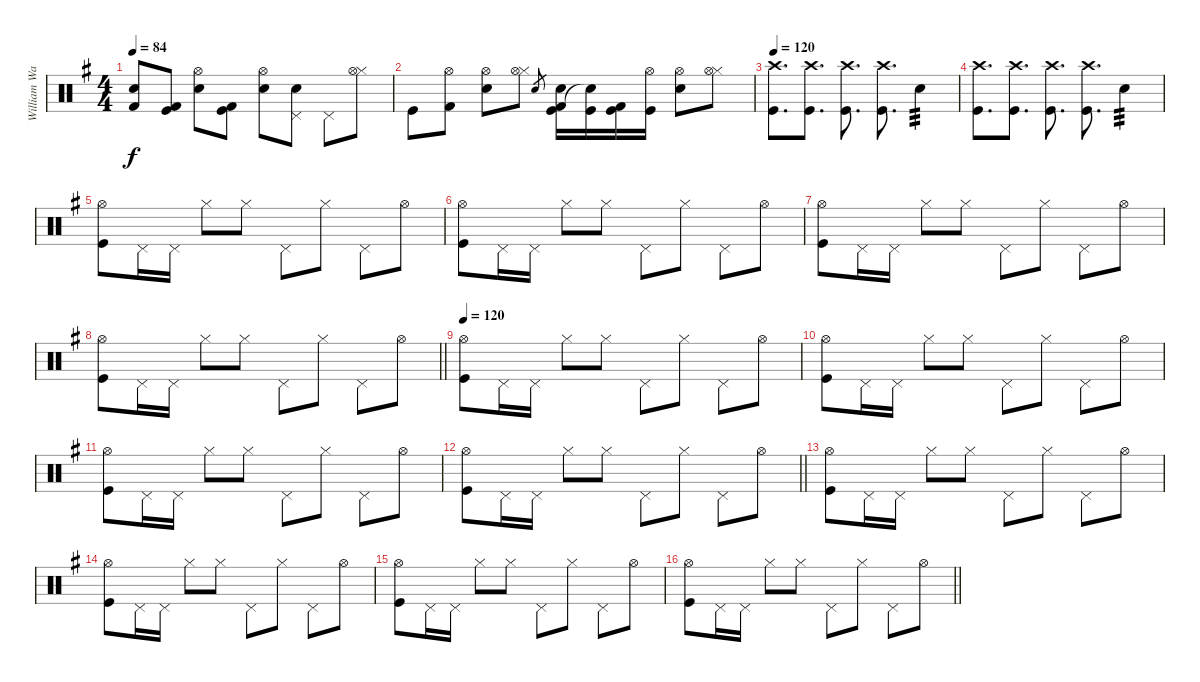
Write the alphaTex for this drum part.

\track ("William Ward" "William Wa") {instrument percussion}
\staff {score}
\articulation defaults
\ts (4 4)
\tempo 84
\clef neutral
\ks g
("Kick (hit) 2" "Electric Snare (hit)").8{dy f} ("Kick (hit) 2" "Kick (hit)").8 ("Hi-Hat (open)" "Electric Snare (hit)").8 ("Kick (hit) 2" "Kick (hit)").8 ("Hi-Hat (open)" "Electric Snare (hit)").8 ("Pedal Hi-Hat (hit)" "Snare (hit) 2").8 "Pedal Hi-Hat (hit)".8 ("Hi-Hat (closed)" "Hi-Hat (open)").8 |
"Kick (hit)".8 ("Kick (hit) 2" "Hi-Hat (open)").8 ("Hi-Hat (open)" "Electric Snare (hit)").8 ("Hi-Hat (closed)" "Hi-Hat (open)").8 "Electric Snare (hit)".8{gr} ("Kick (hit) 2" "Kick (hit)" "Electric Snare (hit)").16 ("Kick (hit)" "Electric Snare (hit)"{t}).16 ("Kick (hit) 2" "Kick (hit)").16 ("Hi-Hat (open)" "Kick (hit)").16 ("Hi-Hat (open)" "Electric Snare (hit)").8 ("Hi-Hat (closed)" "Hi-Hat (open)").8 |
\tempo 120
("Kick (hit)" "Crash high (hit)").8{d} ("Kick (hit)" "Crash high (hit)").8{d} ("Kick (hit)" "Crash high (hit)").8{d} ("Kick (hit)" "Crash high (hit)").8{d} "Electric Snare (hit)".4{tp 3} |
("Kick (hit)" "Crash high (hit)").8{d} ("Kick (hit)" "Crash high (hit)").8{d} ("Kick (hit)" "Crash high (hit)").8{d} ("Kick (hit)" "Crash high (hit)").8{d} "Electric Snare (hit)".4{tp 3} |
("Hi-Hat (open)" "Kick (hit)").8 "Pedal Hi-Hat (hit)".16 "Pedal Hi-Hat (hit)".16 "Hi-Hat (closed)".8 "Hi-Hat (closed)".8 "Pedal Hi-Hat (hit)".8 "Hi-Hat (closed)".8 "Pedal Hi-Hat (hit)".8 "Hi-Hat (open)".8 |
("Hi-Hat (open)" "Kick (hit)").8 "Pedal Hi-Hat (hit)".16 "Pedal Hi-Hat (hit)".16 "Hi-Hat (closed)".8 "Hi-Hat (closed)".8 "Pedal Hi-Hat (hit)".8 "Hi-Hat (closed)".8 "Pedal Hi-Hat (hit)".8 "Hi-Hat (open)".8 |
("Hi-Hat (open)" "Kick (hit)").8 "Pedal Hi-Hat (hit)".16 "Pedal Hi-Hat (hit)".16 "Hi-Hat (closed)".8 "Hi-Hat (closed)".8 "Pedal Hi-Hat (hit)".8 "Hi-Hat (closed)".8 "Pedal Hi-Hat (hit)".8 "Hi-Hat (open)".8 |
\barLineRight lightlight
("Hi-Hat (open)" "Kick (hit)").8 "Pedal Hi-Hat (hit)".16 "Pedal Hi-Hat (hit)".16 "Hi-Hat (closed)".8 "Hi-Hat (closed)".8 "Pedal Hi-Hat (hit)".8 "Hi-Hat (closed)".8 "Pedal Hi-Hat (hit)".8 "Hi-Hat (open)".8 |
\tempo 120
("Hi-Hat (open)" "Kick (hit)").8 "Pedal Hi-Hat (hit)".16 "Pedal Hi-Hat (hit)".16 "Hi-Hat (closed)".8 "Hi-Hat (closed)".8 "Pedal Hi-Hat (hit)".8 "Hi-Hat (closed)".8 "Pedal Hi-Hat (hit)".8 "Hi-Hat (open)".8 |
("Hi-Hat (open)" "Kick (hit)").8 "Pedal Hi-Hat (hit)".16 "Pedal Hi-Hat (hit)".16 "Hi-Hat (closed)".8 "Hi-Hat (closed)".8 "Pedal Hi-Hat (hit)".8 "Hi-Hat (closed)".8 "Pedal Hi-Hat (hit)".8 "Hi-Hat (open)".8 |
("Hi-Hat (open)" "Kick (hit)").8 "Pedal Hi-Hat (hit)".16 "Pedal Hi-Hat (hit)".16 "Hi-Hat (closed)".8 "Hi-Hat (closed)".8 "Pedal Hi-Hat (hit)".8 "Hi-Hat (closed)".8 "Pedal Hi-Hat (hit)".8 "Hi-Hat (open)".8 |
\barLineRight lightlight
("Hi-Hat (open)" "Kick (hit)").8 "Pedal Hi-Hat (hit)".16 "Pedal Hi-Hat (hit)".16 "Hi-Hat (closed)".8 "Hi-Hat (closed)".8 "Pedal Hi-Hat (hit)".8 "Hi-Hat (closed)".8 "Pedal Hi-Hat (hit)".8 "Hi-Hat (open)".8 |
("Hi-Hat (open)" "Kick (hit)").8 "Pedal Hi-Hat (hit)".16 "Pedal Hi-Hat (hit)".16 "Hi-Hat (closed)".8 "Hi-Hat (closed)".8 "Pedal Hi-Hat (hit)".8 "Hi-Hat (closed)".8 "Pedal Hi-Hat (hit)".8 "Hi-Hat (open)".8 |
("Hi-Hat (open)" "Kick (hit)").8 "Pedal Hi-Hat (hit)".16 "Pedal Hi-Hat (hit)".16 "Hi-Hat (closed)".8 "Hi-Hat (closed)".8 "Pedal Hi-Hat (hit)".8 "Hi-Hat (closed)".8 "Pedal Hi-Hat (hit)".8 "Hi-Hat (open)".8 |
("Hi-Hat (open)" "Kick (hit)").8 "Pedal Hi-Hat (hit)".16 "Pedal Hi-Hat (hit)".16 "Hi-Hat (closed)".8 "Hi-Hat (closed)".8 "Pedal Hi-Hat (hit)".8 "Hi-Hat (closed)".8 "Pedal Hi-Hat (hit)".8 "Hi-Hat (open)".8 |
\barLineRight lightlight
("Hi-Hat (open)" "Kick (hit)").8 "Pedal Hi-Hat (hit)".16 "Pedal Hi-Hat (hit)".16 "Hi-Hat (closed)".8 "Hi-Hat (closed)".8 "Pedal Hi-Hat (hit)".8 "Hi-Hat (closed)".8 "Pedal Hi-Hat (hit)".8 "Hi-Hat (open)".8
